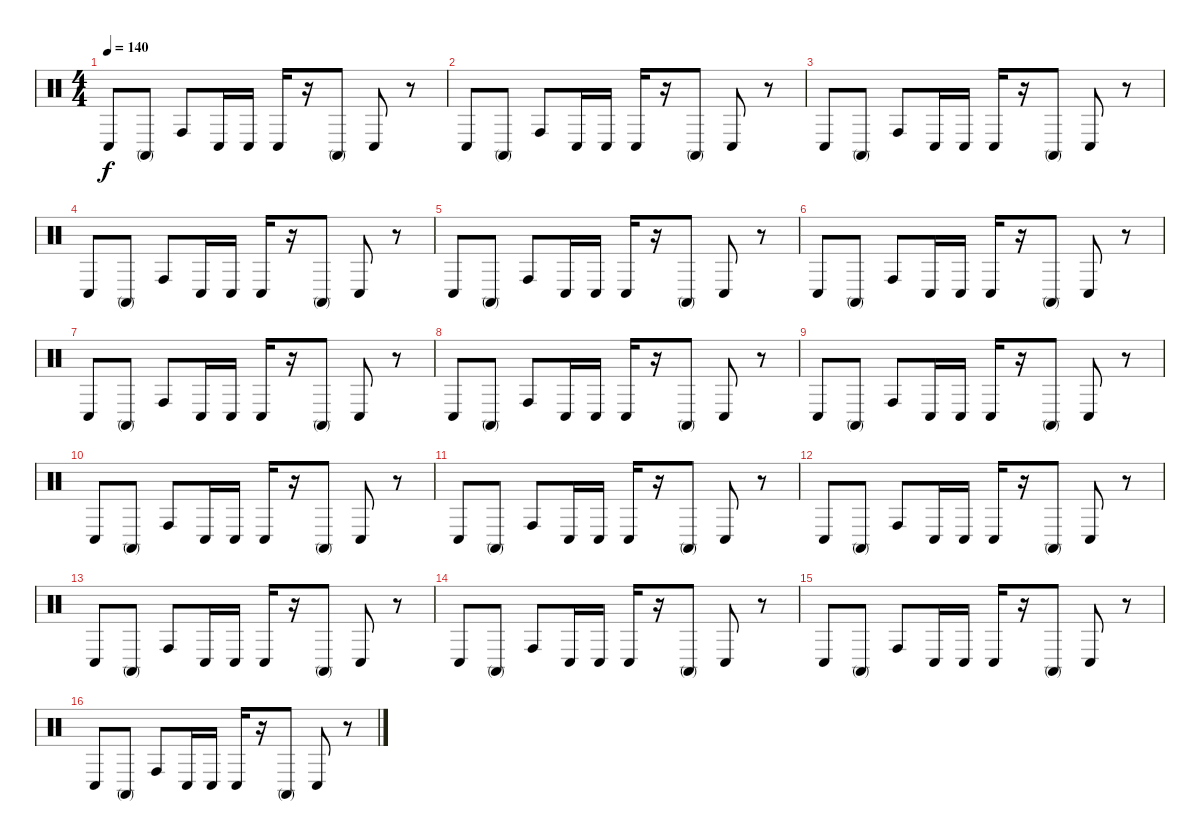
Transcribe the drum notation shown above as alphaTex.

\track "" {instrument percussion}
\staff {score}
\articulation defaults
\ts (4 4)
\tempo 140
\clef neutral
\ks c "Conga low (hit)".8{dy f} "Conga high (mute)".8 "Conga high (hit)".8 "Conga low (hit)".16 "Conga low (hit)".16 "Conga low (hit)".16
r.16 "Conga high (mute)".8 "Conga low (hit)".8 r.8 |
"Conga low (hit)".8 "Conga high (mute)".8 "Conga high (hit)".8 "Conga low (hit)".16 "Conga low (hit)".16 "Conga low (hit)".16 r.16 "Conga high (mute)".8 "Conga low (hit)".8 r.8 |
"Conga low (hit)".8 "Conga high (mute)".8 "Conga high (hit)".8 "Conga low (hit)".16 "Conga low (hit)".16 "Conga low (hit)".16 r.16 "Conga high (mute)".8 "Conga low (hit)".8 r.8 |
"Conga low (hit)".8 "Conga high (mute)".8 "Conga high (hit)".8 "Conga low (hit)".16 "Conga low (hit)".16 "Conga low (hit)".16 r.16 "Conga high (mute)".8 "Conga low (hit)".8 r.8 |
"Conga low (hit)".8 "Conga high (mute)".8 "Conga high (hit)".8 "Conga low (hit)".16 "Conga low (hit)".16 "Conga low (hit)".16 r.16 "Conga high (mute)".8 "Conga low (hit)".8 r.8 |
"Conga low (hit)".8 "Conga high (mute)".8 "Conga high (hit)".8 "Conga low (hit)".16 "Conga low (hit)".16 "Conga low (hit)".16 r.16 "Conga high (mute)".8 "Conga low (hit)".8 r.8 |
"Conga low (hit)".8 "Conga high (mute)".8 "Conga high (hit)".8 "Conga low (hit)".16 "Conga low (hit)".16 "Conga low (hit)".16 r.16 "Conga high (mute)".8 "Conga low (hit)".8 r.8 |
"Conga low (hit)".8 "Conga high (mute)".8 "Conga high (hit)".8 "Conga low (hit)".16 "Conga low (hit)".16 "Conga low (hit)".16 r.16 "Conga high (mute)".8 "Conga low (hit)".8 r.8 |
"Conga low (hit)".8 "Conga high (mute)".8 "Conga high (hit)".8 "Conga low (hit)".16 "Conga low (hit)".16 "Conga low (hit)".16 r.16 "Conga high (mute)".8 "Conga low (hit)".8 r.8 |
"Conga low (hit)".8 "Conga high (mute)".8 "Conga high (hit)".8 "Conga low (hit)".16 "Conga low (hit)".16 "Conga low (hit)".16 r.16 "Conga high (mute)".8 "Conga low (hit)".8 r.8 |
"Conga low (hit)".8 "Conga high (mute)".8 "Conga high (hit)".8 "Conga low (hit)".16 "Conga low (hit)".16 "Conga low (hit)".16 r.16 "Conga high (mute)".8 "Conga low (hit)".8 r.8 |
"Conga low (hit)".8 "Conga high (mute)".8 "Conga high (hit)".8 "Conga low (hit)".16 "Conga low (hit)".16 "Conga low (hit)".16 r.16 "Conga high (mute)".8 "Conga low (hit)".8 r.8 |
"Conga low (hit)".8 "Conga high (mute)".8 "Conga high (hit)".8 "Conga low (hit)".16 "Conga low (hit)".16 "Conga low (hit)".16 r.16 "Conga high (mute)".8 "Conga low (hit)".8 r.8 |
"Conga low (hit)".8 "Conga high (mute)".8 "Conga high (hit)".8 "Conga low (hit)".16 "Conga low (hit)".16 "Conga low (hit)".16 r.16 "Conga high (mute)".8 "Conga low (hit)".8 r.8 |
"Conga low (hit)".8 "Conga high (mute)".8 "Conga high (hit)".8 "Conga low (hit)".16 "Conga low (hit)".16 "Conga low (hit)".16 r.16 "Conga high (mute)".8 "Conga low (hit)".8 r.8 |
"Conga low (hit)".8 "Conga high (mute)".8 "Conga high (hit)".8 "Conga low (hit)".16 "Conga low (hit)".16 "Conga low (hit)".16 r.16 "Conga high (mute)".8 "Conga low (hit)".8 r.8
